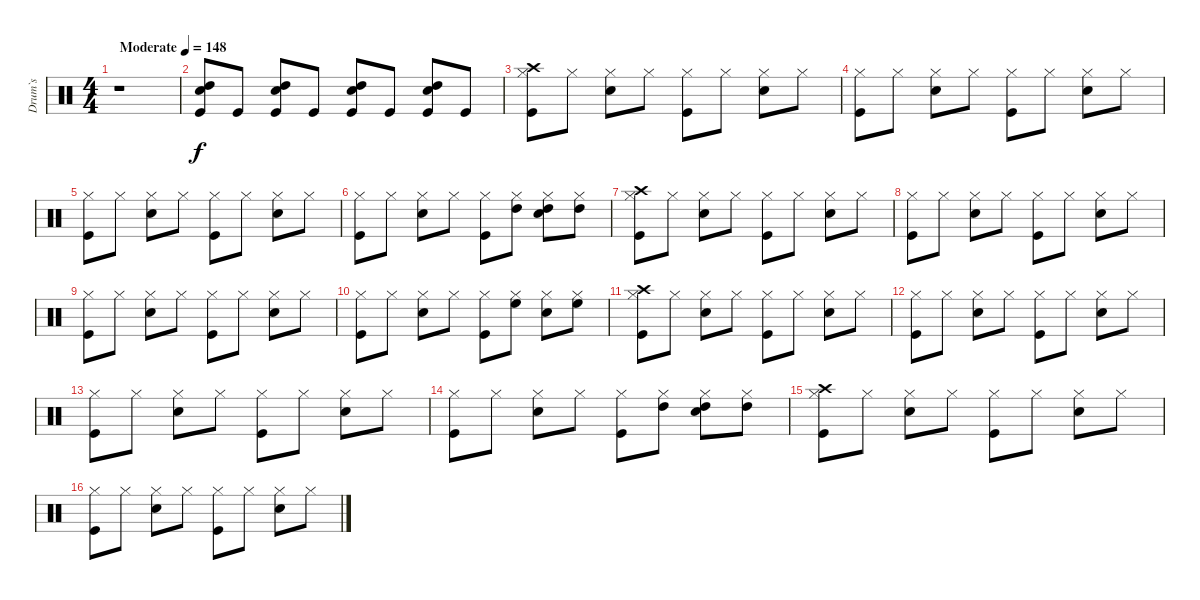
\track ("Drum`s" "Drum`s") {instrument percussion}
\staff {score}
\articulation defaults
\ts (4 4)
\tempo (148 "Moderate")
\clef neutral
\ks c
r.1{dy f} |
("High Tom (hit)" "Kick (hit)" "Snare (hit) 2").8 "Kick (hit)".8 ("High Tom (hit)" "Kick (hit)" "Snare (hit) 2").8 "Kick (hit)".8 ("High Tom (hit)" "Kick (hit)" "Snare (hit) 2").8 "Kick (hit)".8 ("High Tom (hit)" "Kick (hit)" "Snare (hit) 2").8 "Kick (hit)".8 |
("Crash high (hit)" "Hi-Hat (closed)" "Kick (hit)").8 "Hi-Hat (closed)".8 ("Hi-Hat (closed)" "Snare (hit) 2").8 "Hi-Hat (closed)".8 ("Kick (hit)" "Hi-Hat (closed)").8 "Hi-Hat (closed)".8 ("Hi-Hat (closed)" "Snare (hit) 2").8 "Hi-Hat (closed)".8 |
("Hi-Hat (closed)" "Kick (hit)").8 "Hi-Hat (closed)".8 ("Hi-Hat (closed)" "Snare (hit) 2").8 "Hi-Hat (closed)".8 ("Hi-Hat (closed)" "Kick (hit)").8 "Hi-Hat (closed)".8 ("Hi-Hat (closed)" "Snare (hit) 2").8 "Hi-Hat (closed)".8 |
("Hi-Hat (closed)" "Kick (hit)").8 "Hi-Hat (closed)".8 ("Hi-Hat (closed)" "Snare (hit) 2").8 "Hi-Hat (closed)".8 ("Hi-Hat (closed)" "Kick (hit)").8 "Hi-Hat (closed)".8 ("Hi-Hat (closed)" "Snare (hit) 2").8 "Hi-Hat (closed)".8 |
("Hi-Hat (closed)" "Kick (hit)").8 "Hi-Hat (closed)".8 ("Hi-Hat (closed)" "Snare (hit) 2").8 "Hi-Hat (closed)".8 ("Hi-Hat (closed)" "Kick (hit)").8 ("High Tom (hit)" "Hi-Hat (closed)").8 ("High Tom (hit)" "Hi-Hat (closed)" "Snare (hit) 2").8 ("High Tom (hit)" "Hi-Hat (closed)").8 |
("Crash high (hit)" "Hi-Hat (closed)" "Kick (hit)").8 "Hi-Hat (closed)".8 ("Hi-Hat (closed)" "Snare (hit) 2").8 "Hi-Hat (closed)".8 ("Hi-Hat (closed)" "Kick (hit)").8 "Hi-Hat (closed)".8 ("Hi-Hat (closed)" "Snare (hit) 2").8 "Hi-Hat (closed)".8 |
("Hi-Hat (closed)" "Kick (hit)").8 "Hi-Hat (closed)".8 ("Hi-Hat (closed)" "Snare (hit) 2").8 "Hi-Hat (closed)".8 ("Hi-Hat (closed)" "Kick (hit)").8 "Hi-Hat (closed)".8 ("Hi-Hat (closed)" "Snare (hit) 2").8 "Hi-Hat (closed)".8 |
("Hi-Hat (closed)" "Kick (hit)").8 "Hi-Hat (closed)".8 ("Hi-Hat (closed)" "Snare (hit) 2").8 "Hi-Hat (closed)".8 ("Hi-Hat (closed)" "Kick (hit)").8 "Hi-Hat (closed)".8 ("Hi-Hat (closed)" "Snare (hit) 2").8 "Hi-Hat (closed)".8 |
("Hi-Hat (closed)" "Kick (hit)").8 "Hi-Hat (closed)".8 ("Hi-Hat (closed)" "Snare (hit) 2").8 "Hi-Hat (closed)".8 ("Hi-Hat (closed)" "Kick (hit)").8 ("High Floor Tom (hit)" "Hi-Hat (closed)").8 ("Hi-Hat (closed)" "Snare (hit) 2").8 ("High Floor Tom (hit)" "Hi-Hat (closed)").8 |
("Crash high (hit)" "Hi-Hat (closed)" "Kick (hit)").8 "Hi-Hat (closed)".8 ("Hi-Hat (closed)" "Snare (hit) 2").8 "Hi-Hat (closed)".8 ("Hi-Hat (closed)" "Kick (hit)").8 "Hi-Hat (closed)".8 ("Hi-Hat (closed)" "Snare (hit) 2").8 "Hi-Hat (closed)".8 |
("Hi-Hat (closed)" "Kick (hit)").8 "Hi-Hat (closed)".8 ("Hi-Hat (closed)" "Snare (hit) 2").8 "Hi-Hat (closed)".8 ("Hi-Hat (closed)" "Kick (hit)").8 "Hi-Hat (closed)".8 ("Hi-Hat (closed)" "Snare (hit) 2").8 "Hi-Hat (closed)".8 |
("Hi-Hat (closed)" "Kick (hit)").8 "Hi-Hat (closed)".8 ("Hi-Hat (closed)" "Snare (hit) 2").8 "Hi-Hat (closed)".8 ("Hi-Hat (closed)" "Kick (hit)").8 "Hi-Hat (closed)".8 ("Hi-Hat (closed)" "Snare (hit) 2").8 "Hi-Hat (closed)".8 |
("Hi-Hat (closed)" "Kick (hit)").8 "Hi-Hat (closed)".8 ("Hi-Hat (closed)" "Snare (hit) 2").8 "Hi-Hat (closed)".8 ("Hi-Hat (closed)" "Kick (hit)").8 ("High Tom (hit)" "Hi-Hat (closed)").8 ("High Tom (hit)" "Hi-Hat (closed)" "Snare (hit) 2").8 ("High Tom (hit)" "Hi-Hat (closed)").8 |
("Crash high (hit)" "Hi-Hat (closed)" "Kick (hit)").8 "Hi-Hat (closed)".8 ("Hi-Hat (closed)" "Snare (hit) 2").8 "Hi-Hat (closed)".8 ("Hi-Hat (closed)" "Kick (hit)").8 "Hi-Hat (closed)".8 ("Hi-Hat (closed)" "Snare (hit) 2").8 "Hi-Hat (closed)".8 |
("Hi-Hat (closed)" "Kick (hit)").8 "Hi-Hat (closed)".8 ("Hi-Hat (closed)" "Snare (hit) 2").8 "Hi-Hat (closed)".8 ("Hi-Hat (closed)" "Kick (hit)").8 "Hi-Hat (closed)".8 ("Hi-Hat (closed)" "Snare (hit) 2").8 "Hi-Hat (closed)".8
